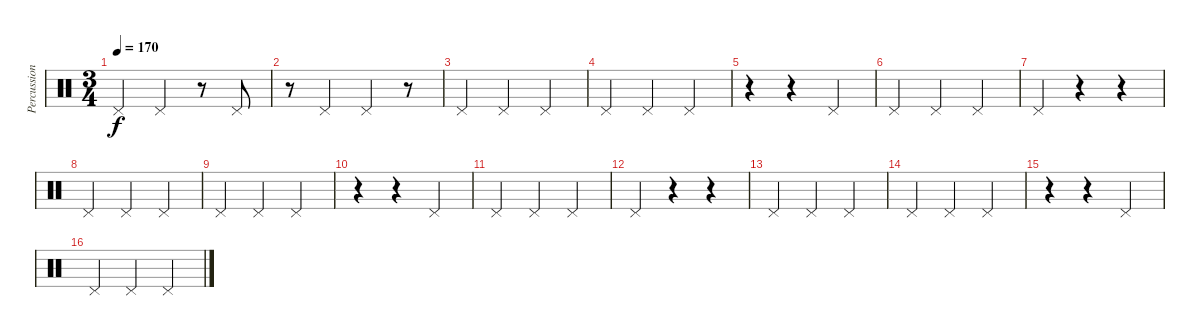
\track ("Percussion" "Percussion") {instrument percussion}
\staff {score}
\articulation defaults
\ts (3 4)
\tempo 170
\clef neutral
\ks c "Pedal Hi-Hat (hit)".4{dy f} "Pedal Hi-Hat (hit)".4
r.8 "Pedal Hi-Hat (hit)".8 |
r.8 "Pedal Hi-Hat (hit)".4 "Pedal Hi-Hat (hit)".4 r.8 |
"Pedal Hi-Hat (hit)".4 "Pedal Hi-Hat (hit)".4 "Pedal Hi-Hat (hit)".4 |
"Pedal Hi-Hat (hit)".4 "Pedal Hi-Hat (hit)".4 "Pedal Hi-Hat (hit)".4 |
r.4 r.4 "Pedal Hi-Hat (hit)".4 |
"Pedal Hi-Hat (hit)".4 "Pedal Hi-Hat (hit)".4 "Pedal Hi-Hat (hit)".4 |
"Pedal Hi-Hat (hit)".4 r.4 r.4 |
"Pedal Hi-Hat (hit)".4 "Pedal Hi-Hat (hit)".4 "Pedal Hi-Hat (hit)".4 |
"Pedal Hi-Hat (hit)".4 "Pedal Hi-Hat (hit)".4 "Pedal Hi-Hat (hit)".4 |
r.4 r.4 "Pedal Hi-Hat (hit)".4 |
"Pedal Hi-Hat (hit)".4 "Pedal Hi-Hat (hit)".4 "Pedal Hi-Hat (hit)".4 |
"Pedal Hi-Hat (hit)".4 r.4 r.4 |
"Pedal Hi-Hat (hit)".4 "Pedal Hi-Hat (hit)".4 "Pedal Hi-Hat (hit)".4 |
"Pedal Hi-Hat (hit)".4 "Pedal Hi-Hat (hit)".4 "Pedal Hi-Hat (hit)".4 |
r.4 r.4 "Pedal Hi-Hat (hit)".4 |
"Pedal Hi-Hat (hit)".4 "Pedal Hi-Hat (hit)".4 "Pedal Hi-Hat (hit)".4
